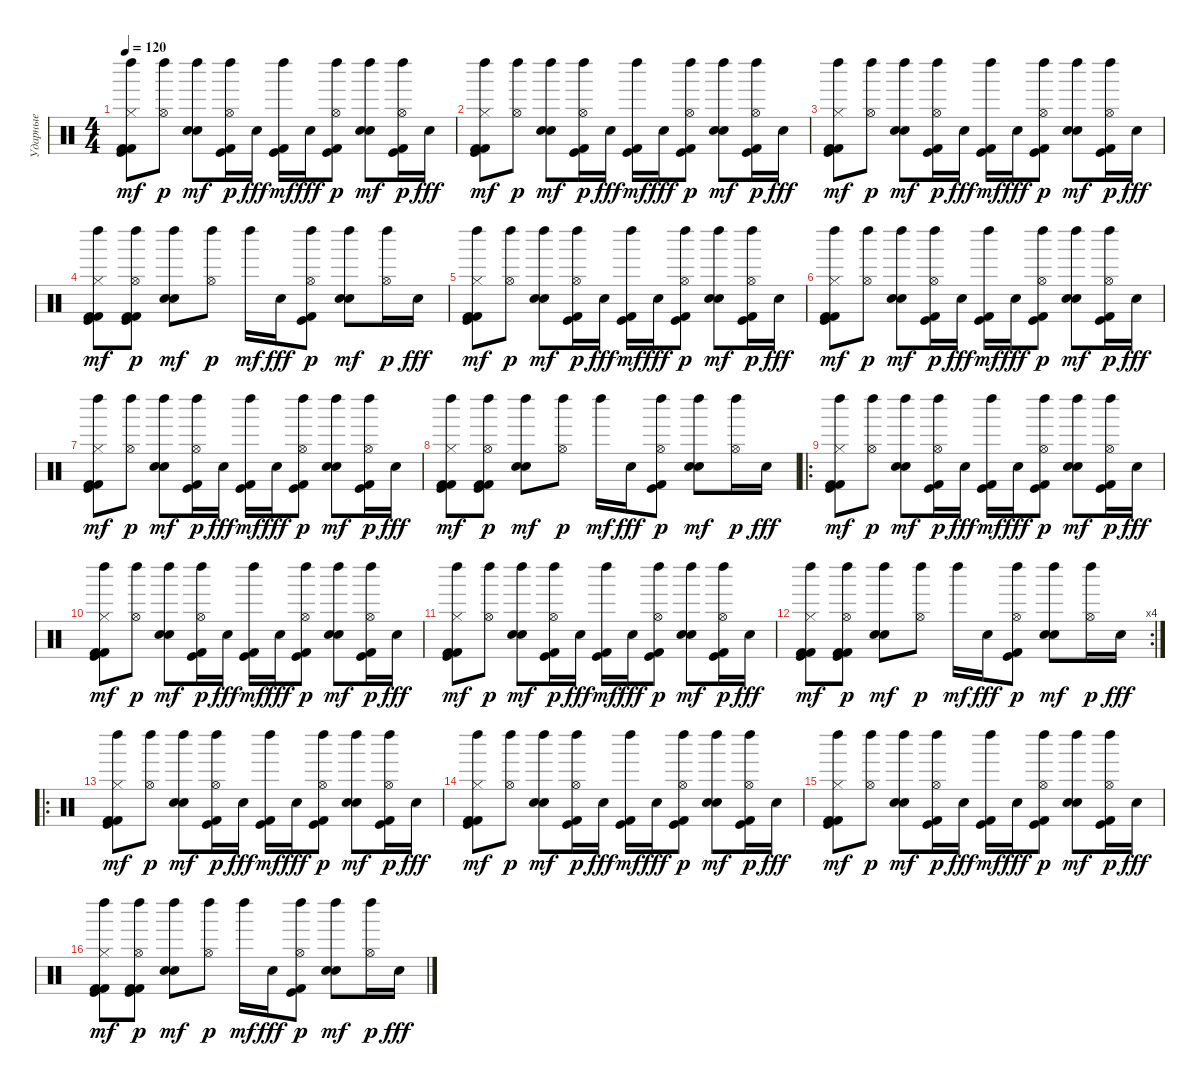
\track ("Ударные" "Ударные") {instrument percussion}
\staff {score}
\articulation defaults
\ts (4 4)
\tempo 120
\clef neutral
\ks c
("Hi-Hat (closed)" "Kick (hit)" "Kick (hit) 2" "Kick (hit) 2" "Left Maraca (hit)").8{dy mf} ("Hi-Hat (open)" "Left Maraca (hit)").8{dy p} ("Snare (hit) 2" "Electric Snare (hit)" "Left Maraca (hit)").8{dy mf} ("Hi-Hat (open)" "Kick (hit)" "Kick (hit) 2" "Left Maraca (hit)").16{dy p} "Snare (hit) 2".16{dy fff} ("Kick (hit)" "Kick (hit) 2" "Left Maraca (hit)").16{dy mf} "Snare (hit) 2".16{dy fff} ("Hi-Hat (open)" "Kick (hit)" "Kick (hit) 2" "Left Maraca (hit)").8{dy p} ("Snare (hit) 2" "Electric Snare (hit)" "Left Maraca (hit)").8{dy mf} ("Hi-Hat (open)" "Kick (hit)" "Kick (hit) 2" "Left Maraca (hit)").16{dy p} "Snare (hit) 2".16{dy fff} |
("Hi-Hat (closed)" "Kick (hit)" "Kick (hit) 2" "Kick (hit) 2" "Left Maraca (hit)").8{dy mf} ("Hi-Hat (open)" "Left Maraca (hit)").8{dy p} ("Snare (hit) 2" "Electric Snare (hit)" "Left Maraca (hit)").8{dy mf} ("Hi-Hat (open)" "Kick (hit)" "Kick (hit) 2" "Left Maraca (hit)").16{dy p} "Snare (hit) 2".16{dy fff} ("Kick (hit)" "Kick (hit) 2" "Left Maraca (hit)").16{dy mf} "Snare (hit) 2".16{dy fff} ("Hi-Hat (open)" "Kick (hit)" "Kick (hit) 2" "Left Maraca (hit)").8{dy p} ("Snare (hit) 2" "Electric Snare (hit)" "Left Maraca (hit)").8{dy mf} ("Hi-Hat (open)" "Kick (hit)" "Kick (hit) 2" "Left Maraca (hit)").16{dy p} "Snare (hit) 2".16{dy fff} |
("Hi-Hat (closed)" "Kick (hit)" "Kick (hit) 2" "Kick (hit) 2" "Left Maraca (hit)").8{dy mf} ("Hi-Hat (open)" "Left Maraca (hit)").8{dy p} ("Snare (hit) 2" "Electric Snare (hit)" "Left Maraca (hit)").8{dy mf} ("Hi-Hat (open)" "Kick (hit)" "Kick (hit) 2" "Left Maraca (hit)").16{dy p} "Snare (hit) 2".16{dy fff} ("Kick (hit)" "Kick (hit) 2" "Left Maraca (hit)").16{dy mf} "Snare (hit) 2".16{dy fff} ("Hi-Hat (open)" "Kick (hit)" "Kick (hit) 2" "Left Maraca (hit)").8{dy p} ("Snare (hit) 2" "Electric Snare (hit)" "Left Maraca (hit)").8{dy mf} ("Hi-Hat (open)" "Kick (hit)" "Kick (hit) 2" "Left Maraca (hit)").16{dy p} "Snare (hit) 2".16{dy fff} |
("Hi-Hat (closed)" "Kick (hit)" "Kick (hit) 2" "Kick (hit) 2" "Left Maraca (hit)").8{dy mf} ("Hi-Hat (open)" "Kick (hit)" "Kick (hit) 2" "Kick (hit) 2" "Left Maraca (hit)").8{dy p} ("Snare (hit) 2" "Electric Snare (hit)" "Left Maraca (hit)").8{dy mf} ("Hi-Hat (open)" "Left Maraca (hit)").8{dy p} "Left Maraca (hit)".16{dy mf} "Snare (hit) 2".16{dy fff} ("Hi-Hat (open)" "Kick (hit)" "Kick (hit) 2" "Left Maraca (hit)").8{dy p} ("Snare (hit) 2" "Electric Snare (hit)" "Left Maraca (hit)").8{dy mf} ("Hi-Hat (open)" "Left Maraca (hit)").16{dy p} "Snare (hit) 2".16{dy fff} |
("Hi-Hat (closed)" "Kick (hit)" "Kick (hit) 2" "Kick (hit) 2" "Left Maraca (hit)").8{dy mf} ("Hi-Hat (open)" "Left Maraca (hit)").8{dy p} ("Snare (hit) 2" "Electric Snare (hit)" "Left Maraca (hit)").8{dy mf} ("Hi-Hat (open)" "Kick (hit)" "Kick (hit) 2" "Left Maraca (hit)").16{dy p} "Snare (hit) 2".16{dy fff} ("Kick (hit)" "Kick (hit) 2" "Left Maraca (hit)").16{dy mf} "Snare (hit) 2".16{dy fff} ("Hi-Hat (open)" "Kick (hit)" "Kick (hit) 2" "Left Maraca (hit)").8{dy p} ("Snare (hit) 2" "Electric Snare (hit)" "Left Maraca (hit)").8{dy mf} ("Hi-Hat (open)" "Kick (hit)" "Kick (hit) 2" "Left Maraca (hit)").16{dy p} "Snare (hit) 2".16{dy fff} |
("Hi-Hat (closed)" "Kick (hit)" "Kick (hit) 2" "Kick (hit) 2" "Left Maraca (hit)").8{dy mf} ("Hi-Hat (open)" "Left Maraca (hit)").8{dy p} ("Snare (hit) 2" "Electric Snare (hit)" "Left Maraca (hit)").8{dy mf} ("Hi-Hat (open)" "Kick (hit)" "Kick (hit) 2" "Left Maraca (hit)").16{dy p} "Snare (hit) 2".16{dy fff} ("Kick (hit)" "Kick (hit) 2" "Left Maraca (hit)").16{dy mf} "Snare (hit) 2".16{dy fff} ("Hi-Hat (open)" "Kick (hit)" "Kick (hit) 2" "Left Maraca (hit)").8{dy p} ("Snare (hit) 2" "Electric Snare (hit)" "Left Maraca (hit)").8{dy mf} ("Hi-Hat (open)" "Kick (hit)" "Kick (hit) 2" "Left Maraca (hit)").16{dy p} "Snare (hit) 2".16{dy fff} |
("Hi-Hat (closed)" "Kick (hit)" "Kick (hit) 2" "Kick (hit) 2" "Left Maraca (hit)").8{dy mf} ("Hi-Hat (open)" "Left Maraca (hit)").8{dy p} ("Snare (hit) 2" "Electric Snare (hit)" "Left Maraca (hit)").8{dy mf} ("Hi-Hat (open)" "Kick (hit)" "Kick (hit) 2" "Left Maraca (hit)").16{dy p} "Snare (hit) 2".16{dy fff} ("Kick (hit)" "Kick (hit) 2" "Left Maraca (hit)").16{dy mf} "Snare (hit) 2".16{dy fff} ("Hi-Hat (open)" "Kick (hit)" "Kick (hit) 2" "Left Maraca (hit)").8{dy p} ("Snare (hit) 2" "Electric Snare (hit)" "Left Maraca (hit)").8{dy mf} ("Hi-Hat (open)" "Kick (hit)" "Kick (hit) 2" "Left Maraca (hit)").16{dy p} "Snare (hit) 2".16{dy fff} |
("Hi-Hat (closed)" "Kick (hit)" "Kick (hit) 2" "Kick (hit) 2" "Left Maraca (hit)").8{dy mf} ("Hi-Hat (open)" "Kick (hit)" "Kick (hit) 2" "Kick (hit) 2" "Left Maraca (hit)").8{dy p} ("Snare (hit) 2" "Electric Snare (hit)" "Left Maraca (hit)").8{dy mf} ("Hi-Hat (open)" "Left Maraca (hit)").8{dy p} "Left Maraca (hit)".16{dy mf} "Snare (hit) 2".16{dy fff} ("Hi-Hat (open)" "Kick (hit)" "Kick (hit) 2" "Left Maraca (hit)").8{dy p} ("Snare (hit) 2" "Electric Snare (hit)" "Left Maraca (hit)").8{dy mf} ("Hi-Hat (open)" "Left Maraca (hit)").16{dy p} "Snare (hit) 2".16{dy fff} |
\ro
("Hi-Hat (closed)" "Kick (hit)" "Kick (hit) 2" "Kick (hit) 2" "Left Maraca (hit)").8{dy mf} ("Hi-Hat (open)" "Left Maraca (hit)").8{dy p} ("Snare (hit) 2" "Electric Snare (hit)" "Left Maraca (hit)").8{dy mf} ("Hi-Hat (open)" "Kick (hit)" "Kick (hit) 2" "Left Maraca (hit)").16{dy p} "Snare (hit) 2".16{dy fff} ("Kick (hit)" "Kick (hit) 2" "Left Maraca (hit)").16{dy mf} "Snare (hit) 2".16{dy fff} ("Hi-Hat (open)" "Kick (hit)" "Kick (hit) 2" "Left Maraca (hit)").8{dy p} ("Snare (hit) 2" "Electric Snare (hit)" "Left Maraca (hit)").8{dy mf} ("Hi-Hat (open)" "Kick (hit)" "Kick (hit) 2" "Left Maraca (hit)").16{dy p} "Snare (hit) 2".16{dy fff} |
("Hi-Hat (closed)" "Kick (hit)" "Kick (hit) 2" "Kick (hit) 2" "Left Maraca (hit)").8{dy mf} ("Hi-Hat (open)" "Left Maraca (hit)").8{dy p} ("Snare (hit) 2" "Electric Snare (hit)" "Left Maraca (hit)").8{dy mf} ("Hi-Hat (open)" "Kick (hit)" "Kick (hit) 2" "Left Maraca (hit)").16{dy p} "Snare (hit) 2".16{dy fff} ("Kick (hit)" "Kick (hit) 2" "Left Maraca (hit)").16{dy mf} "Snare (hit) 2".16{dy fff} ("Hi-Hat (open)" "Kick (hit)" "Kick (hit) 2" "Left Maraca (hit)").8{dy p} ("Snare (hit) 2" "Electric Snare (hit)" "Left Maraca (hit)").8{dy mf} ("Hi-Hat (open)" "Kick (hit)" "Kick (hit) 2" "Left Maraca (hit)").16{dy p} "Snare (hit) 2".16{dy fff} |
("Hi-Hat (closed)" "Kick (hit)" "Kick (hit) 2" "Kick (hit) 2" "Left Maraca (hit)").8{dy mf} ("Hi-Hat (open)" "Left Maraca (hit)").8{dy p} ("Snare (hit) 2" "Electric Snare (hit)" "Left Maraca (hit)").8{dy mf} ("Hi-Hat (open)" "Kick (hit)" "Kick (hit) 2" "Left Maraca (hit)").16{dy p} "Snare (hit) 2".16{dy fff} ("Kick (hit)" "Kick (hit) 2" "Left Maraca (hit)").16{dy mf} "Snare (hit) 2".16{dy fff} ("Hi-Hat (open)" "Kick (hit)" "Kick (hit) 2" "Left Maraca (hit)").8{dy p} ("Snare (hit) 2" "Electric Snare (hit)" "Left Maraca (hit)").8{dy mf} ("Hi-Hat (open)" "Kick (hit)" "Kick (hit) 2" "Left Maraca (hit)").16{dy p} "Snare (hit) 2".16{dy fff} |
\rc 4
("Hi-Hat (closed)" "Kick (hit)" "Kick (hit) 2" "Kick (hit) 2" "Left Maraca (hit)").8{dy mf} ("Hi-Hat (open)" "Kick (hit)" "Kick (hit) 2" "Kick (hit) 2" "Left Maraca (hit)").8{dy p} ("Snare (hit) 2" "Electric Snare (hit)" "Left Maraca (hit)").8{dy mf} ("Hi-Hat (open)" "Left Maraca (hit)").8{dy p} "Left Maraca (hit)".16{dy mf} "Snare (hit) 2".16{dy fff} ("Hi-Hat (open)" "Kick (hit)" "Kick (hit) 2" "Left Maraca (hit)").8{dy p} ("Snare (hit) 2" "Electric Snare (hit)" "Left Maraca (hit)").8{dy mf} ("Hi-Hat (open)" "Left Maraca (hit)").16{dy p} "Snare (hit) 2".16{dy fff} |
\ro
("Hi-Hat (closed)" "Kick (hit)" "Kick (hit) 2" "Kick (hit) 2" "Left Maraca (hit)").8{dy mf} ("Hi-Hat (open)" "Left Maraca (hit)").8{dy p} ("Snare (hit) 2" "Electric Snare (hit)" "Left Maraca (hit)").8{dy mf} ("Hi-Hat (open)" "Kick (hit)" "Kick (hit) 2" "Left Maraca (hit)").16{dy p} "Snare (hit) 2".16{dy fff} ("Kick (hit)" "Kick (hit) 2" "Left Maraca (hit)").16{dy mf} "Snare (hit) 2".16{dy fff} ("Hi-Hat (open)" "Kick (hit)" "Kick (hit) 2" "Left Maraca (hit)").8{dy p} ("Snare (hit) 2" "Electric Snare (hit)" "Left Maraca (hit)").8{dy mf} ("Hi-Hat (open)" "Kick (hit)" "Kick (hit) 2" "Left Maraca (hit)").16{dy p} "Snare (hit) 2".16{dy fff} |
("Hi-Hat (closed)" "Kick (hit)" "Kick (hit) 2" "Kick (hit) 2" "Left Maraca (hit)").8{dy mf} ("Hi-Hat (open)" "Left Maraca (hit)").8{dy p} ("Snare (hit) 2" "Electric Snare (hit)" "Left Maraca (hit)").8{dy mf} ("Hi-Hat (open)" "Kick (hit)" "Kick (hit) 2" "Left Maraca (hit)").16{dy p} "Snare (hit) 2".16{dy fff} ("Kick (hit)" "Kick (hit) 2" "Left Maraca (hit)").16{dy mf} "Snare (hit) 2".16{dy fff} ("Hi-Hat (open)" "Kick (hit)" "Kick (hit) 2" "Left Maraca (hit)").8{dy p} ("Snare (hit) 2" "Electric Snare (hit)" "Left Maraca (hit)").8{dy mf} ("Hi-Hat (open)" "Kick (hit)" "Kick (hit) 2" "Left Maraca (hit)").16{dy p} "Snare (hit) 2".16{dy fff} |
("Hi-Hat (closed)" "Kick (hit)" "Kick (hit) 2" "Kick (hit) 2" "Left Maraca (hit)").8{dy mf} ("Hi-Hat (open)" "Left Maraca (hit)").8{dy p} ("Snare (hit) 2" "Electric Snare (hit)" "Left Maraca (hit)").8{dy mf} ("Hi-Hat (open)" "Kick (hit)" "Kick (hit) 2" "Left Maraca (hit)").16{dy p} "Snare (hit) 2".16{dy fff} ("Kick (hit)" "Kick (hit) 2" "Left Maraca (hit)").16{dy mf} "Snare (hit) 2".16{dy fff} ("Hi-Hat (open)" "Kick (hit)" "Kick (hit) 2" "Left Maraca (hit)").8{dy p} ("Snare (hit) 2" "Electric Snare (hit)" "Left Maraca (hit)").8{dy mf} ("Hi-Hat (open)" "Kick (hit)" "Kick (hit) 2" "Left Maraca (hit)").16{dy p} "Snare (hit) 2".16{dy fff} |
("Hi-Hat (closed)" "Kick (hit)" "Kick (hit) 2" "Kick (hit) 2" "Left Maraca (hit)").8{dy mf} ("Hi-Hat (open)" "Kick (hit)" "Kick (hit) 2" "Kick (hit) 2" "Left Maraca (hit)").8{dy p} ("Snare (hit) 2" "Electric Snare (hit)" "Left Maraca (hit)").8{dy mf} ("Hi-Hat (open)" "Left Maraca (hit)").8{dy p} "Left Maraca (hit)".16{dy mf} "Snare (hit) 2".16{dy fff} ("Hi-Hat (open)" "Kick (hit)" "Kick (hit) 2" "Left Maraca (hit)").8{dy p} ("Snare (hit) 2" "Electric Snare (hit)" "Left Maraca (hit)").8{dy mf} ("Hi-Hat (open)" "Left Maraca (hit)").16{dy p} "Snare (hit) 2".16{dy fff}
